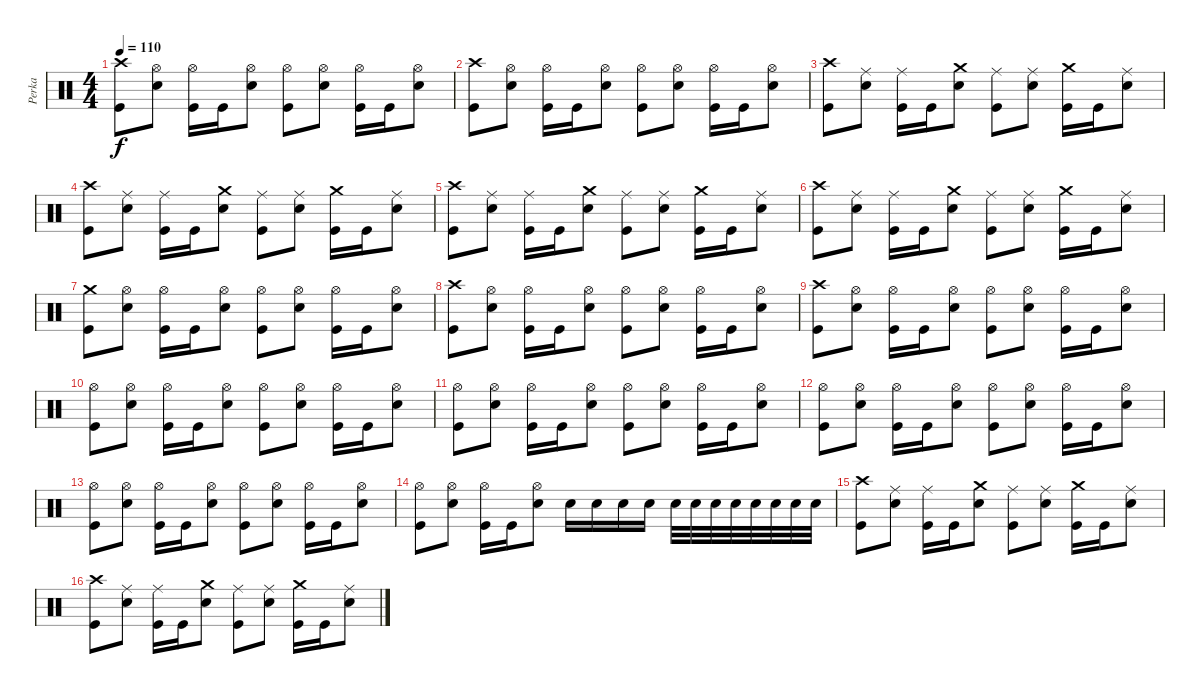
\track ("Perka" "Perka") {instrument percussion}
\staff {score}
\articulation defaults
\ts (4 4)
\tempo 110
\clef neutral
\ks c
("Crash high (hit)" "Kick (hit)").8{dy f} ("Hi-Hat (open)" "Snare (hit) 2").8 ("Hi-Hat (open)" "Kick (hit)").16 "Kick (hit)".16 ("Hi-Hat (open)" "Snare (hit) 2").8 ("Hi-Hat (open)" "Kick (hit)").8 ("Hi-Hat (open)" "Snare (hit) 2").8 ("Hi-Hat (open)" "Kick (hit)").16 "Kick (hit)".16 ("Hi-Hat (open)" "Snare (hit) 2").8 |
("Crash high (hit)" "Kick (hit)").8 ("Hi-Hat (open)" "Snare (hit) 2").8 ("Hi-Hat (open)" "Kick (hit)").16 "Kick (hit)".16 ("Hi-Hat (open)" "Snare (hit) 2").8 ("Hi-Hat (open)" "Kick (hit)").8 ("Hi-Hat (open)" "Snare (hit) 2").8 ("Hi-Hat (open)" "Kick (hit)").16 "Kick (hit)".16 ("Hi-Hat (open)" "Snare (hit) 2").8 |
("Crash high (hit)" "Kick (hit)").8 ("Ride (middle)" "Snare (hit) 2").8 ("Ride (middle)" "Kick (hit)").16 "Kick (hit)".16 ("Crash medium (hit)" "Snare (hit) 2").8 ("Ride (middle)" "Kick (hit)").8 ("Ride (middle)" "Snare (hit) 2").8 ("Crash medium (hit)" "Kick (hit)").16 "Kick (hit)".16 ("Ride (middle)" "Snare (hit) 2").8 |
("Crash high (hit)" "Kick (hit)").8 ("Ride (middle)" "Snare (hit) 2").8 ("Ride (middle)" "Kick (hit)").16 "Kick (hit)".16 ("Crash medium (hit)" "Snare (hit) 2").8 ("Ride (middle)" "Kick (hit)").8 ("Ride (middle)" "Snare (hit) 2").8 ("Crash medium (hit)" "Kick (hit)").16 "Kick (hit)".16 ("Ride (middle)" "Snare (hit) 2").8 |
("Crash high (hit)" "Kick (hit)").8 ("Ride (middle)" "Snare (hit) 2").8 ("Ride (middle)" "Kick (hit)").16 "Kick (hit)".16 ("Crash medium (hit)" "Snare (hit) 2").8 ("Ride (middle)" "Kick (hit)").8 ("Ride (middle)" "Snare (hit) 2").8 ("Crash medium (hit)" "Kick (hit)").16 "Kick (hit)".16 ("Ride (middle)" "Snare (hit) 2").8 |
("Crash high (hit)" "Kick (hit)").8 ("Ride (middle)" "Snare (hit) 2").8 ("Ride (middle)" "Kick (hit)").16 "Kick (hit)".16 ("Crash medium (hit)" "Snare (hit) 2").8 ("Ride (middle)" "Kick (hit)").8 ("Ride (middle)" "Snare (hit) 2").8 ("Crash medium (hit)" "Kick (hit)").16 "Kick (hit)".16 ("Ride (middle)" "Snare (hit) 2").8 |
("Crash medium (hit)" "Kick (hit)").8 ("Hi-Hat (open)" "Snare (hit) 2").8 ("Hi-Hat (open)" "Kick (hit)").16 "Kick (hit)".16 ("Hi-Hat (open)" "Snare (hit) 2").8 ("Hi-Hat (open)" "Kick (hit)").8 ("Hi-Hat (open)" "Snare (hit) 2").8 ("Hi-Hat (open)" "Kick (hit)").16 "Kick (hit)".16 ("Hi-Hat (open)" "Snare (hit) 2").8 |
("Crash high (hit)" "Kick (hit)").8 ("Hi-Hat (open)" "Snare (hit) 2").8 ("Hi-Hat (open)" "Kick (hit)").16 "Kick (hit)".16 ("Hi-Hat (open)" "Snare (hit) 2").8 ("Hi-Hat (open)" "Kick (hit)").8 ("Hi-Hat (open)" "Snare (hit) 2").8 ("Hi-Hat (open)" "Kick (hit)").16 "Kick (hit)".16 ("Hi-Hat (open)" "Snare (hit) 2").8 |
("Crash high (hit)" "Kick (hit)").8 ("Hi-Hat (open)" "Snare (hit) 2").8 ("Hi-Hat (open)" "Kick (hit)").16 "Kick (hit)".16 ("Hi-Hat (open)" "Snare (hit) 2").8 ("Hi-Hat (open)" "Kick (hit)").8 ("Hi-Hat (open)" "Snare (hit) 2").8 ("Hi-Hat (open)" "Kick (hit)").16 "Kick (hit)".16 ("Hi-Hat (open)" "Snare (hit) 2").8 |
("Hi-Hat (open)" "Kick (hit)").8 ("Hi-Hat (open)" "Snare (hit) 2").8 ("Hi-Hat (open)" "Kick (hit)").16 "Kick (hit)".16 ("Hi-Hat (open)" "Snare (hit) 2").8 ("Hi-Hat (open)" "Kick (hit)").8 ("Hi-Hat (open)" "Snare (hit) 2").8 ("Hi-Hat (open)" "Kick (hit)").16 "Kick (hit)".16 ("Hi-Hat (open)" "Snare (hit) 2").8 |
("Hi-Hat (open)" "Kick (hit)").8 ("Hi-Hat (open)" "Snare (hit) 2").8 ("Hi-Hat (open)" "Kick (hit)").16 "Kick (hit)".16 ("Hi-Hat (open)" "Snare (hit) 2").8 ("Hi-Hat (open)" "Kick (hit)").8 ("Hi-Hat (open)" "Snare (hit) 2").8 ("Hi-Hat (open)" "Kick (hit)").16 "Kick (hit)".16 ("Hi-Hat (open)" "Snare (hit) 2").8 |
("Hi-Hat (open)" "Kick (hit)").8 ("Hi-Hat (open)" "Snare (hit) 2").8 ("Hi-Hat (open)" "Kick (hit)").16 "Kick (hit)".16 ("Hi-Hat (open)" "Snare (hit) 2").8 ("Hi-Hat (open)" "Kick (hit)").8 ("Hi-Hat (open)" "Snare (hit) 2").8 ("Hi-Hat (open)" "Kick (hit)").16 "Kick (hit)".16 ("Hi-Hat (open)" "Snare (hit) 2").8 |
("Hi-Hat (open)" "Kick (hit)").8 ("Hi-Hat (open)" "Snare (hit) 2").8 ("Hi-Hat (open)" "Kick (hit)").16 "Kick (hit)".16 ("Hi-Hat (open)" "Snare (hit) 2").8 ("Hi-Hat (open)" "Kick (hit)").8 ("Hi-Hat (open)" "Snare (hit) 2").8 ("Hi-Hat (open)" "Kick (hit)").16 "Kick (hit)".16 ("Hi-Hat (open)" "Snare (hit) 2").8 |
("Hi-Hat (open)" "Kick (hit)").8 ("Hi-Hat (open)" "Snare (hit) 2").8 ("Hi-Hat (open)" "Kick (hit)").16 "Kick (hit)".16 ("Hi-Hat (open)" "Snare (hit) 2").8 "Snare (hit) 2".16 "Snare (hit) 2".16 "Snare (hit) 2".16 "Snare (hit) 2".16 "Snare (hit) 2".32 "Snare (hit) 2".32 "Snare (hit) 2".32 "Snare (hit) 2".32 "Snare (hit) 2".32 "Snare (hit) 2".32 "Snare (hit) 2".32 "Snare (hit) 2".32 |
("Crash high (hit)" "Kick (hit)").8 ("Ride (middle)" "Snare (hit) 2").8 ("Ride (middle)" "Kick (hit)").16 "Kick (hit)".16 ("Crash medium (hit)" "Snare (hit) 2").8 ("Ride (middle)" "Kick (hit)").8 ("Ride (middle)" "Snare (hit) 2").8 ("Crash medium (hit)" "Kick (hit)").16 "Kick (hit)".16 ("Ride (middle)" "Snare (hit) 2").8 |
("Crash high (hit)" "Kick (hit)").8 ("Ride (middle)" "Snare (hit) 2").8 ("Ride (middle)" "Kick (hit)").16 "Kick (hit)".16 ("Crash medium (hit)" "Snare (hit) 2").8 ("Ride (middle)" "Kick (hit)").8 ("Ride (middle)" "Snare (hit) 2").8 ("Crash medium (hit)" "Kick (hit)").16 "Kick (hit)".16 ("Ride (middle)" "Snare (hit) 2").8
